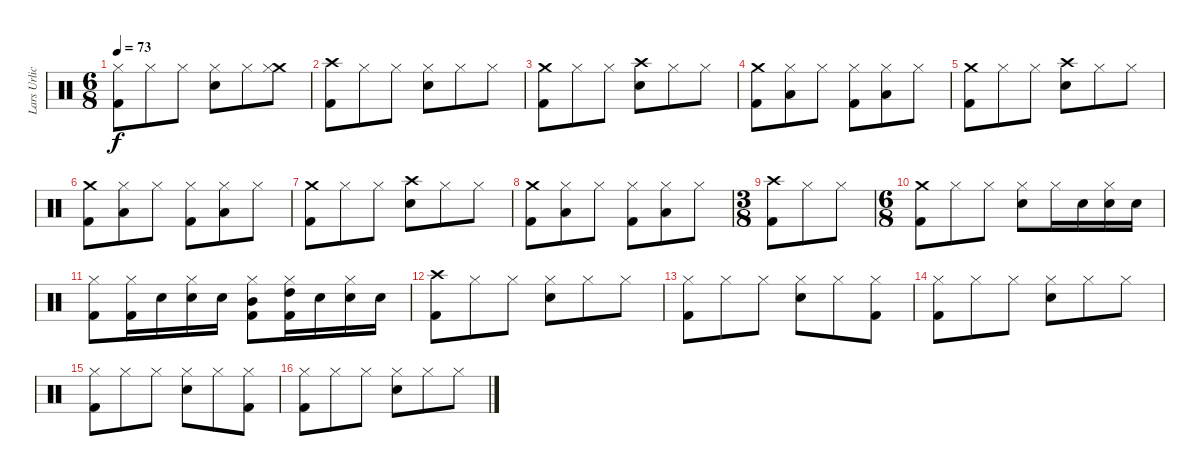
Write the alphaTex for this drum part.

\track ("Lars Urlich" "Lars Urlic") {instrument percussion}
\staff {score}
\articulation defaults
\ts (6 8)
\tempo 73
\clef neutral
\ks c
("Hi-Hat (closed)" "Kick (hit) 2").8{dy f} "Hi-Hat (closed)".8 "Hi-Hat (closed)".8 ("Hi-Hat (closed)" "Snare (hit) 2").8 "Hi-Hat (closed)".8 ("Crash medium (hit)" "Hi-Hat (closed)").8 |
("Crash high (hit)" "Kick (hit) 2").8 "Hi-Hat (closed)".8 "Hi-Hat (closed)".8 ("Hi-Hat (closed)" "Snare (hit) 2").8 "Hi-Hat (closed)".8 "Hi-Hat (closed)".8 |
("Crash medium (hit)" "Kick (hit) 2").8 "Hi-Hat (closed)".8 "Hi-Hat (closed)".8 ("Crash high (hit)" "Snare (hit) 2").8 "Hi-Hat (closed)".8 "Hi-Hat (closed)".8 |
("Crash medium (hit)" "Kick (hit) 2").8 ("Hi-Hat (closed)" "Low Tom (hit)").8 "Hi-Hat (closed)".8 ("Hi-Hat (closed)" "Kick (hit) 2").8 ("Hi-Hat (closed)" "Low Tom (hit)").8 "Hi-Hat (closed)".8 |
("Crash medium (hit)" "Kick (hit) 2").8 "Hi-Hat (closed)".8 "Hi-Hat (closed)".8 ("Crash high (hit)" "Snare (hit) 2").8 "Hi-Hat (closed)".8 "Hi-Hat (closed)".8 |
("Crash medium (hit)" "Kick (hit) 2").8 ("Hi-Hat (closed)" "Low Tom (hit)").8 "Hi-Hat (closed)".8 ("Hi-Hat (closed)" "Kick (hit) 2").8 ("Hi-Hat (closed)" "Low Tom (hit)").8 "Hi-Hat (closed)".8 |
("Crash medium (hit)" "Kick (hit) 2").8 "Hi-Hat (closed)".8 "Hi-Hat (closed)".8 ("Crash high (hit)" "Snare (hit) 2").8 "Hi-Hat (closed)".8 "Hi-Hat (closed)".8 |
("Crash medium (hit)" "Kick (hit) 2").8 ("Hi-Hat (closed)" "Low Tom (hit)").8 "Hi-Hat (closed)".8 ("Hi-Hat (closed)" "Kick (hit) 2").8 ("Hi-Hat (closed)" "Low Tom (hit)").8 "Hi-Hat (closed)".8 |
\ts (3 8)
("Crash high (hit)" "Kick (hit) 2").8 "Hi-Hat (closed)".8 "Hi-Hat (closed)".8 |
\ts (6 8)
("Crash medium (hit)" "Kick (hit) 2").8 "Hi-Hat (closed)".8 "Hi-Hat (closed)".8 ("Hi-Hat (closed)" "Snare (hit) 2").8 "Hi-Hat (closed)".16 "Snare (hit) 2".16 ("Hi-Hat (closed)" "Snare (hit) 2").16 "Snare (hit) 2".16 |
("Hi-Hat (closed)" "Kick (hit) 2").8 ("Hi-Hat (closed)" "Kick (hit) 2").16 "Snare (hit) 2".16 ("Hi-Hat (closed)" "Snare (hit) 2").16 "Snare (hit) 2".16 ("Hi-Hat (closed)" "Mid Tom (hit)" "Kick (hit) 2").8 ("Hi-Hat (closed)" "High Tom (hit)" "Kick (hit) 2").16 "Snare (hit) 2".16 ("Hi-Hat (closed)" "Snare (hit) 2").16 "Snare (hit) 2".16 |
("Crash high (hit)" "Kick (hit) 2").8 "Hi-Hat (closed)".8 "Hi-Hat (closed)".8 ("Hi-Hat (closed)" "Snare (hit) 2").8 "Hi-Hat (closed)".8 "Hi-Hat (closed)".8 |
("Hi-Hat (closed)" "Kick (hit) 2").8 "Hi-Hat (closed)".8 "Hi-Hat (closed)".8 ("Hi-Hat (closed)" "Snare (hit) 2").8 "Hi-Hat (closed)".8 ("Hi-Hat (closed)" "Kick (hit) 2").8 |
("Hi-Hat (closed)" "Kick (hit) 2").8 "Hi-Hat (closed)".8 "Hi-Hat (closed)".8 ("Hi-Hat (closed)" "Snare (hit) 2").8 "Hi-Hat (closed)".8 "Hi-Hat (closed)".8 |
("Hi-Hat (closed)" "Kick (hit) 2").8 "Hi-Hat (closed)".8 "Hi-Hat (closed)".8 ("Hi-Hat (closed)" "Snare (hit) 2").8 "Hi-Hat (closed)".8 ("Hi-Hat (closed)" "Kick (hit) 2").8 |
("Hi-Hat (closed)" "Kick (hit) 2").8 "Hi-Hat (closed)".8 "Hi-Hat (closed)".8 ("Hi-Hat (closed)" "Snare (hit) 2").8 "Hi-Hat (closed)".8 "Hi-Hat (closed)".8
